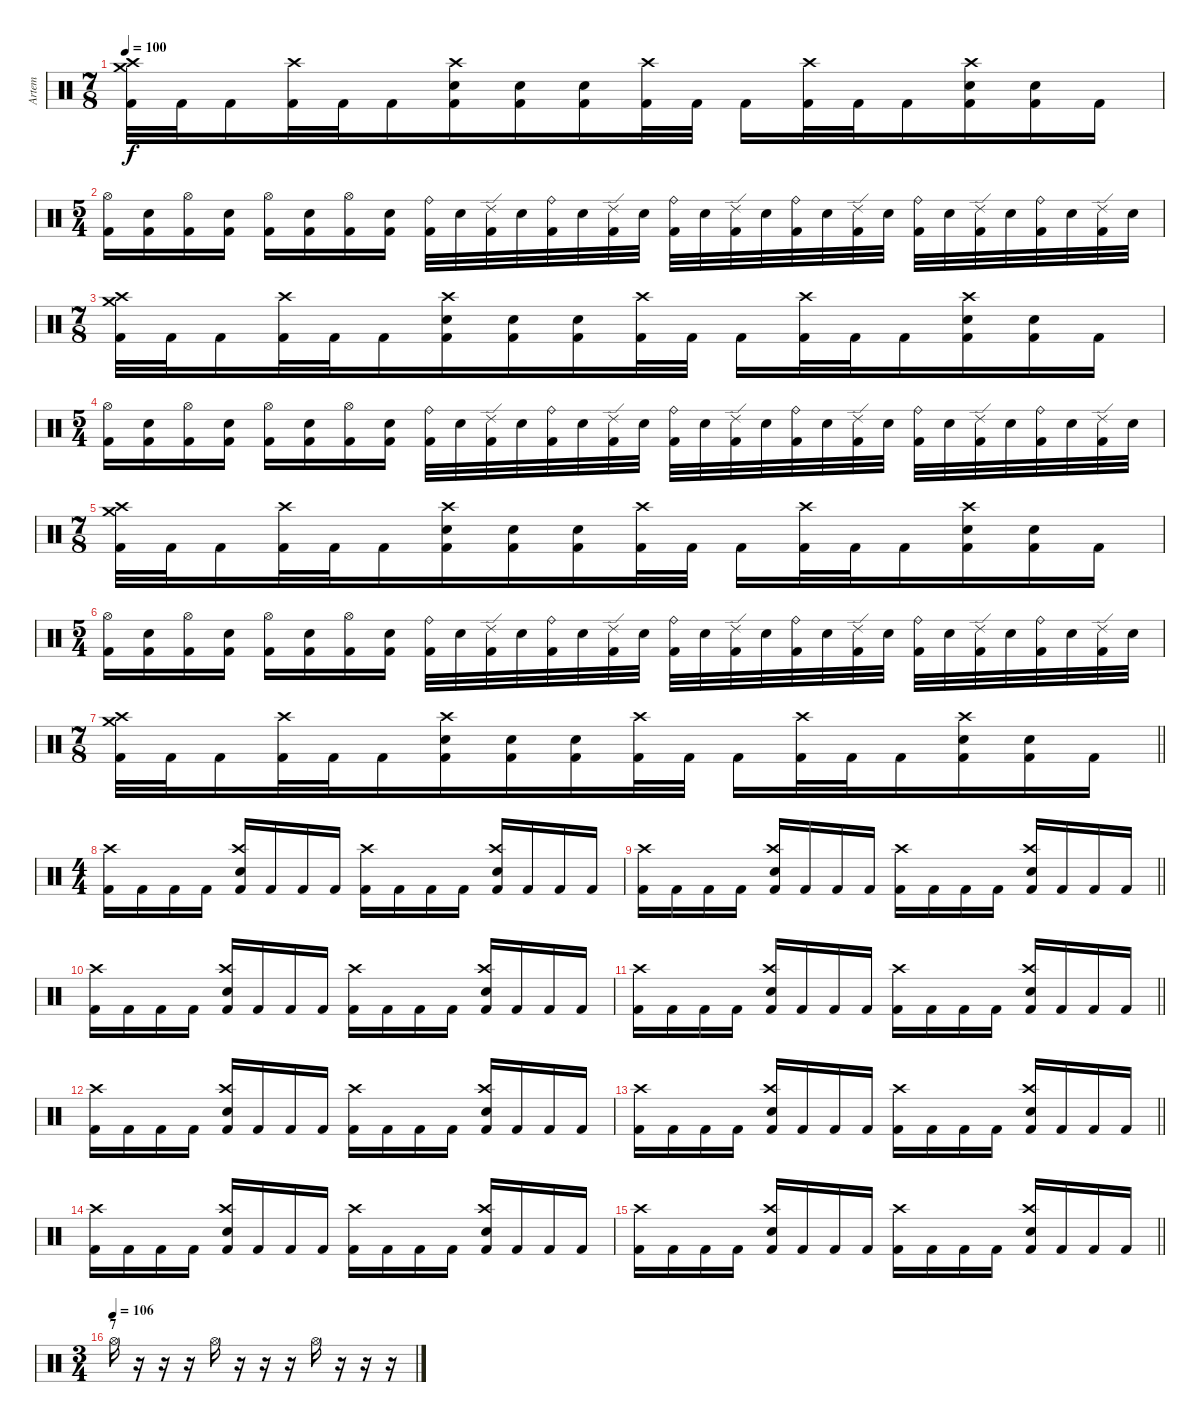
\track ("Artem" "Artem") {instrument percussion}
\staff {score}
\articulation defaults
\ts (7 8)
\tempo 100
\clef neutral
\ks c
("Kick (hit) 2" "Crash high (hit)" "Crash medium (hit)").32{dy f} "Kick (hit) 2".32 "Kick (hit) 2".16 ("Kick (hit) 2" "Crash high (hit)").32 "Kick (hit) 2".32 "Kick (hit) 2".16 ("Kick (hit) 2" "Crash high (hit)" "Snare (hit) 2").16 ("Kick (hit) 2" "Snare (hit) 2").16 ("Kick (hit) 2" "Snare (hit) 2").16 ("Kick (hit) 2" "Crash high (hit)").32 "Kick (hit) 2".32 "Kick (hit) 2".16 ("Kick (hit) 2" "Crash high (hit)").32 "Kick (hit) 2".32 "Kick (hit) 2".16 ("Kick (hit) 2" "Crash high (hit)" "Snare (hit) 2").16 ("Kick (hit) 2" "Snare (hit) 2").16 "Kick (hit) 2".16 |
\ts (5 4)
("Kick (hit) 2" "Hi-Hat (open)").16 ("Kick (hit) 2" "Snare (hit) 2").16 ("Kick (hit) 2" "Hi-Hat (open)").16 ("Kick (hit) 2" "Snare (hit) 2").16 ("Kick (hit) 2" "Hi-Hat (open)").16 ("Kick (hit) 2" "Snare (hit) 2").16 ("Kick (hit) 2" "Hi-Hat (open)").16 ("Kick (hit) 2" "Snare (hit) 2").16 ("Kick (hit) 2" "Ride (bell)").32 "Snare (hit) 2".32 ("Kick (hit) 2" "Ride (edge) 2").32 "Snare (hit) 2".32 ("Kick (hit) 2" "Ride (bell)").32 "Snare (hit) 2".32 ("Kick (hit) 2" "Ride (edge) 2").32 "Snare (hit) 2".32 ("Kick (hit) 2" "Ride (bell)").32 "Snare (hit) 2".32 ("Kick (hit) 2" "Ride (edge) 2").32 "Snare (hit) 2".32 ("Kick (hit) 2" "Ride (bell)").32 "Snare (hit) 2".32 ("Kick (hit) 2" "Ride (edge) 2").32 "Snare (hit) 2".32 ("Kick (hit) 2" "Ride (bell)").32 "Snare (hit) 2".32 ("Kick (hit) 2" "Ride (edge) 2").32 "Snare (hit) 2".32 ("Kick (hit) 2" "Ride (bell)").32 "Snare (hit) 2".32 ("Kick (hit) 2" "Ride (edge) 2").32 "Snare (hit) 2".32 |
\ts (7 8)
("Kick (hit) 2" "Crash high (hit)" "Crash medium (hit)").32 "Kick (hit) 2".32 "Kick (hit) 2".16 ("Kick (hit) 2" "Crash high (hit)").32 "Kick (hit) 2".32 "Kick (hit) 2".16 ("Kick (hit) 2" "Crash high (hit)" "Snare (hit) 2").16 ("Kick (hit) 2" "Snare (hit) 2").16 ("Kick (hit) 2" "Snare (hit) 2").16 ("Kick (hit) 2" "Crash high (hit)").32 "Kick (hit) 2".32 "Kick (hit) 2".16 ("Kick (hit) 2" "Crash high (hit)").32 "Kick (hit) 2".32 "Kick (hit) 2".16 ("Kick (hit) 2" "Crash high (hit)" "Snare (hit) 2").16 ("Kick (hit) 2" "Snare (hit) 2").16 "Kick (hit) 2".16 |
\ts (5 4)
("Kick (hit) 2" "Hi-Hat (open)").16 ("Kick (hit) 2" "Snare (hit) 2").16 ("Kick (hit) 2" "Hi-Hat (open)").16 ("Kick (hit) 2" "Snare (hit) 2").16 ("Kick (hit) 2" "Hi-Hat (open)").16 ("Kick (hit) 2" "Snare (hit) 2").16 ("Kick (hit) 2" "Hi-Hat (open)").16 ("Kick (hit) 2" "Snare (hit) 2").16 ("Kick (hit) 2" "Ride (bell)").32 "Snare (hit) 2".32 ("Kick (hit) 2" "Ride (edge) 2").32 "Snare (hit) 2".32 ("Kick (hit) 2" "Ride (bell)").32 "Snare (hit) 2".32 ("Kick (hit) 2" "Ride (edge) 2").32 "Snare (hit) 2".32 ("Kick (hit) 2" "Ride (bell)").32 "Snare (hit) 2".32 ("Kick (hit) 2" "Ride (edge) 2").32 "Snare (hit) 2".32 ("Kick (hit) 2" "Ride (bell)").32 "Snare (hit) 2".32 ("Kick (hit) 2" "Ride (edge) 2").32 "Snare (hit) 2".32 ("Kick (hit) 2" "Ride (bell)").32 "Snare (hit) 2".32 ("Kick (hit) 2" "Ride (edge) 2").32 "Snare (hit) 2".32 ("Kick (hit) 2" "Ride (bell)").32 "Snare (hit) 2".32 ("Kick (hit) 2" "Ride (edge) 2").32 "Snare (hit) 2".32 |
\ts (7 8)
("Kick (hit) 2" "Crash high (hit)" "Crash medium (hit)").32 "Kick (hit) 2".32 "Kick (hit) 2".16 ("Kick (hit) 2" "Crash high (hit)").32 "Kick (hit) 2".32 "Kick (hit) 2".16 ("Kick (hit) 2" "Crash high (hit)" "Snare (hit) 2").16 ("Kick (hit) 2" "Snare (hit) 2").16 ("Kick (hit) 2" "Snare (hit) 2").16 ("Kick (hit) 2" "Crash high (hit)").32 "Kick (hit) 2".32 "Kick (hit) 2".16 ("Kick (hit) 2" "Crash high (hit)").32 "Kick (hit) 2".32 "Kick (hit) 2".16 ("Kick (hit) 2" "Crash high (hit)" "Snare (hit) 2").16 ("Kick (hit) 2" "Snare (hit) 2").16 "Kick (hit) 2".16 |
\ts (5 4)
("Kick (hit) 2" "Hi-Hat (open)").16 ("Kick (hit) 2" "Snare (hit) 2").16 ("Kick (hit) 2" "Hi-Hat (open)").16 ("Kick (hit) 2" "Snare (hit) 2").16 ("Kick (hit) 2" "Hi-Hat (open)").16 ("Kick (hit) 2" "Snare (hit) 2").16 ("Kick (hit) 2" "Hi-Hat (open)").16 ("Kick (hit) 2" "Snare (hit) 2").16 ("Kick (hit) 2" "Ride (bell)").32 "Snare (hit) 2".32 ("Kick (hit) 2" "Ride (edge) 2").32 "Snare (hit) 2".32 ("Kick (hit) 2" "Ride (bell)").32 "Snare (hit) 2".32 ("Kick (hit) 2" "Ride (edge) 2").32 "Snare (hit) 2".32 ("Kick (hit) 2" "Ride (bell)").32 "Snare (hit) 2".32 ("Kick (hit) 2" "Ride (edge) 2").32 "Snare (hit) 2".32 ("Kick (hit) 2" "Ride (bell)").32 "Snare (hit) 2".32 ("Kick (hit) 2" "Ride (edge) 2").32 "Snare (hit) 2".32 ("Kick (hit) 2" "Ride (bell)").32 "Snare (hit) 2".32 ("Kick (hit) 2" "Ride (edge) 2").32 "Snare (hit) 2".32 ("Kick (hit) 2" "Ride (bell)").32 "Snare (hit) 2".32 ("Kick (hit) 2" "Ride (edge) 2").32 "Snare (hit) 2".32 |
\ts (7 8)
\barLineRight lightlight
("Kick (hit) 2" "Crash high (hit)" "Crash medium (hit)").32 "Kick (hit) 2".32 "Kick (hit) 2".16 ("Kick (hit) 2" "Crash high (hit)").32 "Kick (hit) 2".32 "Kick (hit) 2".16 ("Kick (hit) 2" "Crash high (hit)" "Snare (hit) 2").16 ("Kick (hit) 2" "Snare (hit) 2").16 ("Kick (hit) 2" "Snare (hit) 2").16 ("Kick (hit) 2" "Crash high (hit)").32 "Kick (hit) 2".32 "Kick (hit) 2".16 ("Kick (hit) 2" "Crash high (hit)").32 "Kick (hit) 2".32 "Kick (hit) 2".16 ("Kick (hit) 2" "Crash high (hit)" "Snare (hit) 2").16 ("Kick (hit) 2" "Snare (hit) 2").16 "Kick (hit) 2".16 |
\ts (4 4)
("Kick (hit) 2" "Crash high (hit)").16 "Kick (hit) 2".16 "Kick (hit) 2".16 "Kick (hit) 2".16 ("Kick (hit) 2" "Crash high (hit)" "Snare (hit) 2").16 "Kick (hit) 2".16 "Kick (hit) 2".16 "Kick (hit) 2".16 ("Kick (hit) 2" "Crash high (hit)").16 "Kick (hit) 2".16 "Kick (hit) 2".16 "Kick (hit) 2".16 ("Kick (hit) 2" "Crash high (hit)" "Snare (hit) 2").16 "Kick (hit) 2".16 "Kick (hit) 2".16 "Kick (hit) 2".16 |
\barLineRight lightlight
("Kick (hit) 2" "Crash high (hit)").16 "Kick (hit) 2".16 "Kick (hit) 2".16 "Kick (hit) 2".16 ("Kick (hit) 2" "Crash high (hit)" "Snare (hit) 2").16 "Kick (hit) 2".16 "Kick (hit) 2".16 "Kick (hit) 2".16 ("Kick (hit) 2" "Crash high (hit)").16 "Kick (hit) 2".16 "Kick (hit) 2".16 "Kick (hit) 2".16 ("Kick (hit) 2" "Crash high (hit)" "Snare (hit) 2").16 "Kick (hit) 2".16 "Kick (hit) 2".16 "Kick (hit) 2".16 |
("Kick (hit) 2" "Crash high (hit)").16 "Kick (hit) 2".16 "Kick (hit) 2".16 "Kick (hit) 2".16 ("Kick (hit) 2" "Crash high (hit)" "Snare (hit) 2").16 "Kick (hit) 2".16 "Kick (hit) 2".16 "Kick (hit) 2".16 ("Kick (hit) 2" "Crash high (hit)").16 "Kick (hit) 2".16 "Kick (hit) 2".16 "Kick (hit) 2".16 ("Kick (hit) 2" "Crash high (hit)" "Snare (hit) 2").16 "Kick (hit) 2".16 "Kick (hit) 2".16 "Kick (hit) 2".16 |
\barLineRight lightlight
("Kick (hit) 2" "Crash high (hit)").16 "Kick (hit) 2".16 "Kick (hit) 2".16 "Kick (hit) 2".16 ("Kick (hit) 2" "Crash high (hit)" "Snare (hit) 2").16 "Kick (hit) 2".16 "Kick (hit) 2".16 "Kick (hit) 2".16 ("Kick (hit) 2" "Crash high (hit)").16 "Kick (hit) 2".16 "Kick (hit) 2".16 "Kick (hit) 2".16 ("Kick (hit) 2" "Crash high (hit)" "Snare (hit) 2").16 "Kick (hit) 2".16 "Kick (hit) 2".16 "Kick (hit) 2".16 |
("Kick (hit) 2" "Crash high (hit)").16 "Kick (hit) 2".16 "Kick (hit) 2".16 "Kick (hit) 2".16 ("Kick (hit) 2" "Crash high (hit)" "Snare (hit) 2").16 "Kick (hit) 2".16 "Kick (hit) 2".16 "Kick (hit) 2".16 ("Kick (hit) 2" "Crash high (hit)").16 "Kick (hit) 2".16 "Kick (hit) 2".16 "Kick (hit) 2".16 ("Kick (hit) 2" "Crash high (hit)" "Snare (hit) 2").16 "Kick (hit) 2".16 "Kick (hit) 2".16 "Kick (hit) 2".16 |
\barLineRight lightlight
("Kick (hit) 2" "Crash high (hit)").16 "Kick (hit) 2".16 "Kick (hit) 2".16 "Kick (hit) 2".16 ("Kick (hit) 2" "Crash high (hit)" "Snare (hit) 2").16 "Kick (hit) 2".16 "Kick (hit) 2".16 "Kick (hit) 2".16 ("Kick (hit) 2" "Crash high (hit)").16 "Kick (hit) 2".16 "Kick (hit) 2".16 "Kick (hit) 2".16 ("Kick (hit) 2" "Crash high (hit)" "Snare (hit) 2").16 "Kick (hit) 2".16 "Kick (hit) 2".16 "Kick (hit) 2".16 |
("Kick (hit) 2" "Crash high (hit)").16 "Kick (hit) 2".16 "Kick (hit) 2".16 "Kick (hit) 2".16 ("Kick (hit) 2" "Crash high (hit)" "Snare (hit) 2").16 "Kick (hit) 2".16 "Kick (hit) 2".16 "Kick (hit) 2".16 ("Kick (hit) 2" "Crash high (hit)").16 "Kick (hit) 2".16 "Kick (hit) 2".16 "Kick (hit) 2".16 ("Kick (hit) 2" "Crash high (hit)" "Snare (hit) 2").16 "Kick (hit) 2".16 "Kick (hit) 2".16 "Kick (hit) 2".16 |
\barLineRight lightlight
("Kick (hit) 2" "Crash high (hit)").16 "Kick (hit) 2".16 "Kick (hit) 2".16 "Kick (hit) 2".16 ("Kick (hit) 2" "Crash high (hit)" "Snare (hit) 2").16 "Kick (hit) 2".16 "Kick (hit) 2".16 "Kick (hit) 2".16 ("Kick (hit) 2" "Crash high (hit)").16 "Kick (hit) 2".16 "Kick (hit) 2".16 "Kick (hit) 2".16 ("Kick (hit) 2" "Crash high (hit)" "Snare (hit) 2").16 "Kick (hit) 2".16 "Kick (hit) 2".16 "Kick (hit) 2".16 |
\ts (3 4)
\section ("" "7")
\tempo (106)
"Hi-Hat (open)".16 r.16 r.16 r.16 "Hi-Hat (open)".16 r.16 r.16 r.16 "Hi-Hat (open)".16 r.16 r.16 r.16
